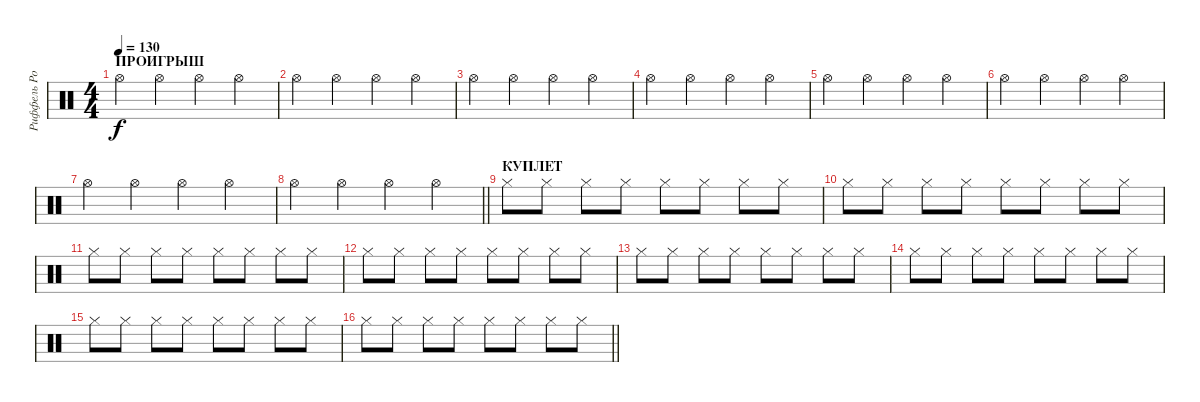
\track ("Риффель Роман(хэты)" "Риффель Ро") {instrument percussion}
\staff {score}
\articulation defaults
\ts (4 4)
\section ("" "ПРОИГРЫШ")
\tempo 130
\clef neutral
\ks c "Hi-Hat (open)".4{dy f} "Hi-Hat (open)".4 "Hi-Hat (open)".4 "Hi-Hat (open)".4
|
"Hi-Hat (open)".4 "Hi-Hat (open)".4 "Hi-Hat (open)".4 "Hi-Hat (open)".4 |
"Hi-Hat (open)".4 "Hi-Hat (open)".4 "Hi-Hat (open)".4 "Hi-Hat (open)".4 |
"Hi-Hat (open)".4 "Hi-Hat (open)".4 "Hi-Hat (open)".4 "Hi-Hat (open)".4 |
"Hi-Hat (open)".4 "Hi-Hat (open)".4 "Hi-Hat (open)".4 "Hi-Hat (open)".4 |
"Hi-Hat (open)".4 "Hi-Hat (open)".4 "Hi-Hat (open)".4 "Hi-Hat (open)".4 |
"Hi-Hat (open)".4 "Hi-Hat (open)".4 "Hi-Hat (open)".4 "Hi-Hat (open)".4 |
\barLineRight lightlight "Hi-Hat (open)".4 "Hi-Hat (open)".4 "Hi-Hat (open)".4 "Hi-Hat (open)".4
|
\section ("" "КУПЛЕТ")
"Hi-Hat (closed)".8 "Hi-Hat (closed)".8 "Hi-Hat (closed)".8 "Hi-Hat (closed)".8 "Hi-Hat (closed)".8 "Hi-Hat (closed)".8 "Hi-Hat (closed)".8 "Hi-Hat (closed)".8 |
"Hi-Hat (closed)".8 "Hi-Hat (closed)".8 "Hi-Hat (closed)".8 "Hi-Hat (closed)".8 "Hi-Hat (closed)".8 "Hi-Hat (closed)".8 "Hi-Hat (closed)".8 "Hi-Hat (closed)".8 |
"Hi-Hat (closed)".8 "Hi-Hat (closed)".8 "Hi-Hat (closed)".8 "Hi-Hat (closed)".8 "Hi-Hat (closed)".8 "Hi-Hat (closed)".8 "Hi-Hat (closed)".8 "Hi-Hat (closed)".8 |
"Hi-Hat (closed)".8 "Hi-Hat (closed)".8 "Hi-Hat (closed)".8 "Hi-Hat (closed)".8 "Hi-Hat (closed)".8 "Hi-Hat (closed)".8 "Hi-Hat (closed)".8 "Hi-Hat (closed)".8 |
"Hi-Hat (closed)".8 "Hi-Hat (closed)".8 "Hi-Hat (closed)".8 "Hi-Hat (closed)".8 "Hi-Hat (closed)".8 "Hi-Hat (closed)".8 "Hi-Hat (closed)".8 "Hi-Hat (closed)".8 |
"Hi-Hat (closed)".8 "Hi-Hat (closed)".8 "Hi-Hat (closed)".8 "Hi-Hat (closed)".8 "Hi-Hat (closed)".8 "Hi-Hat (closed)".8 "Hi-Hat (closed)".8 "Hi-Hat (closed)".8 |
"Hi-Hat (closed)".8 "Hi-Hat (closed)".8 "Hi-Hat (closed)".8 "Hi-Hat (closed)".8 "Hi-Hat (closed)".8 "Hi-Hat (closed)".8 "Hi-Hat (closed)".8 "Hi-Hat (closed)".8 |
\barLineRight lightlight "Hi-Hat (closed)".8 "Hi-Hat (closed)".8 "Hi-Hat (closed)".8 "Hi-Hat (closed)".8 "Hi-Hat (closed)".8 "Hi-Hat (closed)".8 "Hi-Hat (closed)".8 "Hi-Hat (closed)".8
